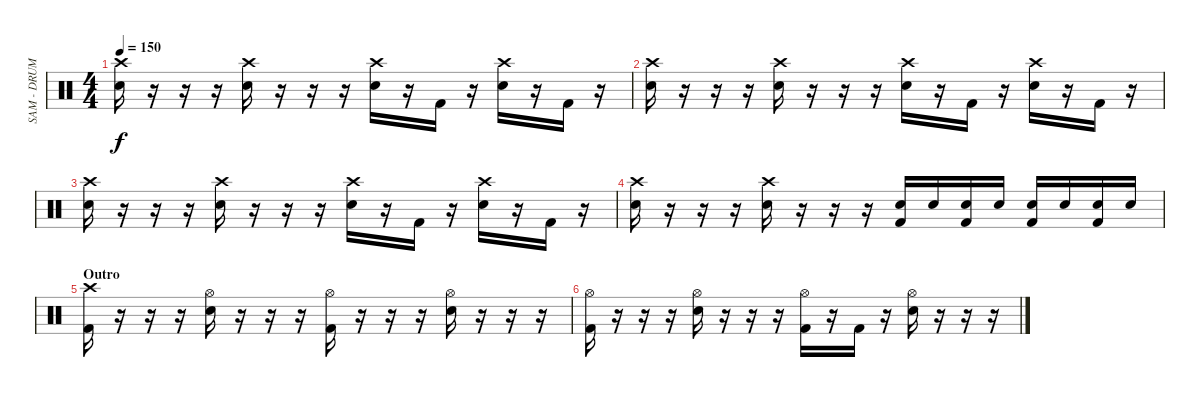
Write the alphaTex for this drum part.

\track ("SAM - DRUMS" "SAM - DRUM") {instrument percussion}
\staff {score}
\articulation defaults
\ts (4 4)
\tempo 150
\clef neutral
\ks c
("Crash high (hit)" "Snare (hit) 2").16{dy f} r.16 r.16 r.16 ("Crash high (hit)" "Snare (hit) 2").16 r.16 r.16 r.16 ("Crash high (hit)" "Snare (hit) 2").16 r.16 "Kick (hit) 2".16 r.16 ("Crash high (hit)" "Snare (hit) 2").16 r.16 "Kick (hit) 2".16 r.16 |
("Crash high (hit)" "Snare (hit) 2").16 r.16 r.16 r.16 ("Crash high (hit)" "Snare (hit) 2").16 r.16 r.16 r.16 ("Crash high (hit)" "Snare (hit) 2").16 r.16 "Kick (hit) 2".16 r.16 ("Crash high (hit)" "Snare (hit) 2").16 r.16 "Kick (hit) 2".16 r.16 |
("Crash high (hit)" "Snare (hit) 2").16 r.16 r.16 r.16 ("Crash high (hit)" "Snare (hit) 2").16 r.16 r.16 r.16 ("Crash high (hit)" "Snare (hit) 2").16 r.16 "Kick (hit) 2".16 r.16 ("Crash high (hit)" "Snare (hit) 2").16 r.16 "Kick (hit) 2".16 r.16 |
("Crash high (hit)" "Snare (hit) 2").16 r.16 r.16 r.16 ("Crash high (hit)" "Snare (hit) 2").16 r.16 r.16 r.16 ("Snare (hit) 2" "Kick (hit) 2").16 "Snare (hit) 2".16 ("Snare (hit) 2" "Kick (hit) 2").16 "Snare (hit) 2".16 ("Snare (hit) 2" "Kick (hit) 2").16 "Snare (hit) 2".16 ("Snare (hit) 2" "Kick (hit) 2").16 "Snare (hit) 2".16 |
\section ("" "Outro")
("Crash high (hit)" "Kick (hit) 2").16 r.16 r.16 r.16 ("Hi-Hat (open)" "Snare (hit) 2").16 r.16 r.16 r.16 ("Hi-Hat (open)" "Kick (hit) 2").16 r.16 r.16 r.16 ("Hi-Hat (open)" "Snare (hit) 2").16 r.16 r.16 r.16 |
("Hi-Hat (open)" "Kick (hit) 2").16 r.16 r.16 r.16 ("Hi-Hat (open)" "Snare (hit) 2").16 r.16 r.16 r.16 ("Hi-Hat (open)" "Kick (hit) 2").16 r.16 "Kick (hit) 2".16 r.16 ("Hi-Hat (open)" "Snare (hit) 2").16 r.16 r.16 r.16
